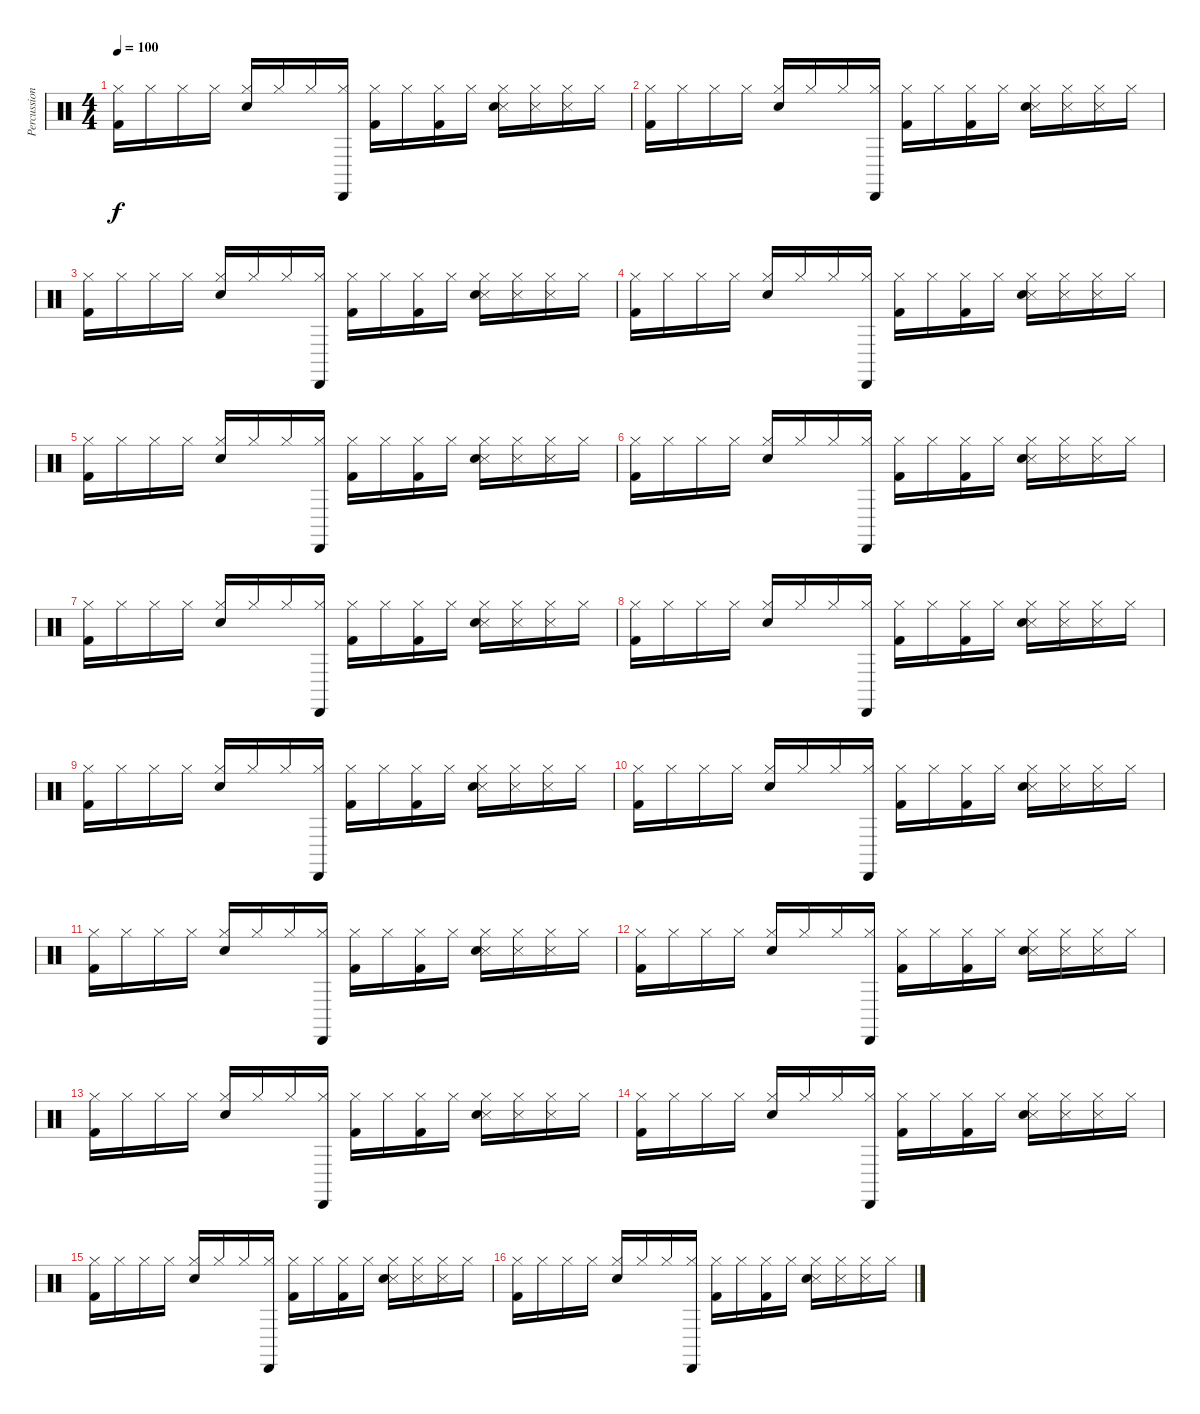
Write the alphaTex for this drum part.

\track ("Percussion" "Percussion") {instrument percussion}
\staff {score}
\articulation defaults
\ts (4 4)
\tempo 100
\clef neutral
\ks c
("Hi-Hat (closed)" "Kick (hit) 2").16{dy f} "Hi-Hat (closed)".16 "Hi-Hat (closed)".16 "Hi-Hat (closed)".16 ("Hi-Hat (closed)" "Snare (hit) 2").16 "Hi-Hat (closed)".16 "Hi-Hat (closed)".16 ("Cabasa (hit)" "Hi-Hat (closed)").16 ("Hi-Hat (closed)" "Kick (hit) 2").16 "Hi-Hat (closed)".16 ("Hi-Hat (closed)" "Kick (hit) 2").16 "Hi-Hat (closed)".16 ("Metronome (hit)" "Hi-Hat (closed)" "Snare (hit) 2").16 ("Metronome (hit)" "Hi-Hat (closed)").16 ("Metronome (hit)" "Hi-Hat (closed)").16 "Hi-Hat (closed)".16 |
("Hi-Hat (closed)" "Kick (hit) 2").16 "Hi-Hat (closed)".16 "Hi-Hat (closed)".16 "Hi-Hat (closed)".16 ("Hi-Hat (closed)" "Snare (hit) 2").16 "Hi-Hat (closed)".16 "Hi-Hat (closed)".16 ("Cabasa (hit)" "Hi-Hat (closed)").16 ("Hi-Hat (closed)" "Kick (hit) 2").16 "Hi-Hat (closed)".16 ("Hi-Hat (closed)" "Kick (hit) 2").16 "Hi-Hat (closed)".16 ("Metronome (hit)" "Hi-Hat (closed)" "Snare (hit) 2").16 ("Metronome (hit)" "Hi-Hat (closed)").16 ("Metronome (hit)" "Hi-Hat (closed)").16 "Hi-Hat (closed)".16 |
("Hi-Hat (closed)" "Kick (hit) 2").16 "Hi-Hat (closed)".16 "Hi-Hat (closed)".16 "Hi-Hat (closed)".16 ("Hi-Hat (closed)" "Snare (hit) 2").16 "Hi-Hat (closed)".16 "Hi-Hat (closed)".16 ("Cabasa (hit)" "Hi-Hat (closed)").16 ("Hi-Hat (closed)" "Kick (hit) 2").16 "Hi-Hat (closed)".16 ("Hi-Hat (closed)" "Kick (hit) 2").16 "Hi-Hat (closed)".16 ("Metronome (hit)" "Hi-Hat (closed)" "Snare (hit) 2").16 ("Metronome (hit)" "Hi-Hat (closed)").16 ("Metronome (hit)" "Hi-Hat (closed)").16 "Hi-Hat (closed)".16 |
("Hi-Hat (closed)" "Kick (hit) 2").16 "Hi-Hat (closed)".16 "Hi-Hat (closed)".16 "Hi-Hat (closed)".16 ("Hi-Hat (closed)" "Snare (hit) 2").16 "Hi-Hat (closed)".16 "Hi-Hat (closed)".16 ("Cabasa (hit)" "Hi-Hat (closed)").16 ("Hi-Hat (closed)" "Kick (hit) 2").16 "Hi-Hat (closed)".16 ("Hi-Hat (closed)" "Kick (hit) 2").16 "Hi-Hat (closed)".16 ("Metronome (hit)" "Hi-Hat (closed)" "Snare (hit) 2").16 ("Metronome (hit)" "Hi-Hat (closed)").16 ("Metronome (hit)" "Hi-Hat (closed)").16 "Hi-Hat (closed)".16 |
("Hi-Hat (closed)" "Kick (hit) 2").16 "Hi-Hat (closed)".16 "Hi-Hat (closed)".16 "Hi-Hat (closed)".16 ("Hi-Hat (closed)" "Snare (hit) 2").16 "Hi-Hat (closed)".16 "Hi-Hat (closed)".16 ("Cabasa (hit)" "Hi-Hat (closed)").16 ("Hi-Hat (closed)" "Kick (hit) 2").16 "Hi-Hat (closed)".16 ("Hi-Hat (closed)" "Kick (hit) 2").16 "Hi-Hat (closed)".16 ("Metronome (hit)" "Hi-Hat (closed)" "Snare (hit) 2").16 ("Metronome (hit)" "Hi-Hat (closed)").16 ("Metronome (hit)" "Hi-Hat (closed)").16 "Hi-Hat (closed)".16 |
("Hi-Hat (closed)" "Kick (hit) 2").16 "Hi-Hat (closed)".16 "Hi-Hat (closed)".16 "Hi-Hat (closed)".16 ("Hi-Hat (closed)" "Snare (hit) 2").16 "Hi-Hat (closed)".16 "Hi-Hat (closed)".16 ("Cabasa (hit)" "Hi-Hat (closed)").16 ("Hi-Hat (closed)" "Kick (hit) 2").16 "Hi-Hat (closed)".16 ("Hi-Hat (closed)" "Kick (hit) 2").16 "Hi-Hat (closed)".16 ("Metronome (hit)" "Hi-Hat (closed)" "Snare (hit) 2").16 ("Metronome (hit)" "Hi-Hat (closed)").16 ("Metronome (hit)" "Hi-Hat (closed)").16 "Hi-Hat (closed)".16 |
("Hi-Hat (closed)" "Kick (hit) 2").16 "Hi-Hat (closed)".16 "Hi-Hat (closed)".16 "Hi-Hat (closed)".16 ("Hi-Hat (closed)" "Snare (hit) 2").16 "Hi-Hat (closed)".16 "Hi-Hat (closed)".16 ("Cabasa (hit)" "Hi-Hat (closed)").16 ("Hi-Hat (closed)" "Kick (hit) 2").16 "Hi-Hat (closed)".16 ("Hi-Hat (closed)" "Kick (hit) 2").16 "Hi-Hat (closed)".16 ("Metronome (hit)" "Hi-Hat (closed)" "Snare (hit) 2").16 ("Metronome (hit)" "Hi-Hat (closed)").16 ("Metronome (hit)" "Hi-Hat (closed)").16 "Hi-Hat (closed)".16 |
("Hi-Hat (closed)" "Kick (hit) 2").16 "Hi-Hat (closed)".16 "Hi-Hat (closed)".16 "Hi-Hat (closed)".16 ("Hi-Hat (closed)" "Snare (hit) 2").16 "Hi-Hat (closed)".16 "Hi-Hat (closed)".16 ("Cabasa (hit)" "Hi-Hat (closed)").16 ("Hi-Hat (closed)" "Kick (hit) 2").16 "Hi-Hat (closed)".16 ("Hi-Hat (closed)" "Kick (hit) 2").16 "Hi-Hat (closed)".16 ("Metronome (hit)" "Hi-Hat (closed)" "Snare (hit) 2").16 ("Metronome (hit)" "Hi-Hat (closed)").16 ("Metronome (hit)" "Hi-Hat (closed)").16 "Hi-Hat (closed)".16 |
("Hi-Hat (closed)" "Kick (hit) 2").16 "Hi-Hat (closed)".16 "Hi-Hat (closed)".16 "Hi-Hat (closed)".16 ("Hi-Hat (closed)" "Snare (hit) 2").16 "Hi-Hat (closed)".16 "Hi-Hat (closed)".16 ("Cabasa (hit)" "Hi-Hat (closed)").16 ("Hi-Hat (closed)" "Kick (hit) 2").16 "Hi-Hat (closed)".16 ("Hi-Hat (closed)" "Kick (hit) 2").16 "Hi-Hat (closed)".16 ("Metronome (hit)" "Hi-Hat (closed)" "Snare (hit) 2").16 ("Metronome (hit)" "Hi-Hat (closed)").16 ("Metronome (hit)" "Hi-Hat (closed)").16 "Hi-Hat (closed)".16 |
("Hi-Hat (closed)" "Kick (hit) 2").16 "Hi-Hat (closed)".16 "Hi-Hat (closed)".16 "Hi-Hat (closed)".16 ("Hi-Hat (closed)" "Snare (hit) 2").16 "Hi-Hat (closed)".16 "Hi-Hat (closed)".16 ("Cabasa (hit)" "Hi-Hat (closed)").16 ("Hi-Hat (closed)" "Kick (hit) 2").16 "Hi-Hat (closed)".16 ("Hi-Hat (closed)" "Kick (hit) 2").16 "Hi-Hat (closed)".16 ("Metronome (hit)" "Hi-Hat (closed)" "Snare (hit) 2").16 ("Metronome (hit)" "Hi-Hat (closed)").16 ("Metronome (hit)" "Hi-Hat (closed)").16 "Hi-Hat (closed)".16 |
("Hi-Hat (closed)" "Kick (hit) 2").16 "Hi-Hat (closed)".16 "Hi-Hat (closed)".16 "Hi-Hat (closed)".16 ("Hi-Hat (closed)" "Snare (hit) 2").16 "Hi-Hat (closed)".16 "Hi-Hat (closed)".16 ("Cabasa (hit)" "Hi-Hat (closed)").16 ("Hi-Hat (closed)" "Kick (hit) 2").16 "Hi-Hat (closed)".16 ("Hi-Hat (closed)" "Kick (hit) 2").16 "Hi-Hat (closed)".16 ("Metronome (hit)" "Hi-Hat (closed)" "Snare (hit) 2").16 ("Metronome (hit)" "Hi-Hat (closed)").16 ("Metronome (hit)" "Hi-Hat (closed)").16 "Hi-Hat (closed)".16 |
("Hi-Hat (closed)" "Kick (hit) 2").16 "Hi-Hat (closed)".16 "Hi-Hat (closed)".16 "Hi-Hat (closed)".16 ("Hi-Hat (closed)" "Snare (hit) 2").16 "Hi-Hat (closed)".16 "Hi-Hat (closed)".16 ("Cabasa (hit)" "Hi-Hat (closed)").16 ("Hi-Hat (closed)" "Kick (hit) 2").16 "Hi-Hat (closed)".16 ("Hi-Hat (closed)" "Kick (hit) 2").16 "Hi-Hat (closed)".16 ("Metronome (hit)" "Hi-Hat (closed)" "Snare (hit) 2").16 ("Metronome (hit)" "Hi-Hat (closed)").16 ("Metronome (hit)" "Hi-Hat (closed)").16 "Hi-Hat (closed)".16 |
("Hi-Hat (closed)" "Kick (hit) 2").16 "Hi-Hat (closed)".16 "Hi-Hat (closed)".16 "Hi-Hat (closed)".16 ("Hi-Hat (closed)" "Snare (hit) 2").16 "Hi-Hat (closed)".16 "Hi-Hat (closed)".16 ("Cabasa (hit)" "Hi-Hat (closed)").16 ("Hi-Hat (closed)" "Kick (hit) 2").16 "Hi-Hat (closed)".16 ("Hi-Hat (closed)" "Kick (hit) 2").16 "Hi-Hat (closed)".16 ("Metronome (hit)" "Hi-Hat (closed)" "Snare (hit) 2").16 ("Metronome (hit)" "Hi-Hat (closed)").16 ("Metronome (hit)" "Hi-Hat (closed)").16 "Hi-Hat (closed)".16 |
("Hi-Hat (closed)" "Kick (hit) 2").16 "Hi-Hat (closed)".16 "Hi-Hat (closed)".16 "Hi-Hat (closed)".16 ("Hi-Hat (closed)" "Snare (hit) 2").16 "Hi-Hat (closed)".16 "Hi-Hat (closed)".16 ("Cabasa (hit)" "Hi-Hat (closed)").16 ("Hi-Hat (closed)" "Kick (hit) 2").16 "Hi-Hat (closed)".16 ("Hi-Hat (closed)" "Kick (hit) 2").16 "Hi-Hat (closed)".16 ("Metronome (hit)" "Hi-Hat (closed)" "Snare (hit) 2").16 ("Metronome (hit)" "Hi-Hat (closed)").16 ("Metronome (hit)" "Hi-Hat (closed)").16 "Hi-Hat (closed)".16 |
("Hi-Hat (closed)" "Kick (hit) 2").16 "Hi-Hat (closed)".16 "Hi-Hat (closed)".16 "Hi-Hat (closed)".16 ("Hi-Hat (closed)" "Snare (hit) 2").16 "Hi-Hat (closed)".16 "Hi-Hat (closed)".16 ("Cabasa (hit)" "Hi-Hat (closed)").16 ("Hi-Hat (closed)" "Kick (hit) 2").16 "Hi-Hat (closed)".16 ("Hi-Hat (closed)" "Kick (hit) 2").16 "Hi-Hat (closed)".16 ("Metronome (hit)" "Hi-Hat (closed)" "Snare (hit) 2").16 ("Metronome (hit)" "Hi-Hat (closed)").16 ("Metronome (hit)" "Hi-Hat (closed)").16 "Hi-Hat (closed)".16 |
("Hi-Hat (closed)" "Kick (hit) 2").16 "Hi-Hat (closed)".16 "Hi-Hat (closed)".16 "Hi-Hat (closed)".16 ("Hi-Hat (closed)" "Snare (hit) 2").16 "Hi-Hat (closed)".16 "Hi-Hat (closed)".16 ("Cabasa (hit)" "Hi-Hat (closed)").16 ("Hi-Hat (closed)" "Kick (hit) 2").16 "Hi-Hat (closed)".16 ("Hi-Hat (closed)" "Kick (hit) 2").16 "Hi-Hat (closed)".16 ("Metronome (hit)" "Hi-Hat (closed)" "Snare (hit) 2").16 ("Metronome (hit)" "Hi-Hat (closed)").16 ("Metronome (hit)" "Hi-Hat (closed)").16 "Hi-Hat (closed)".16
